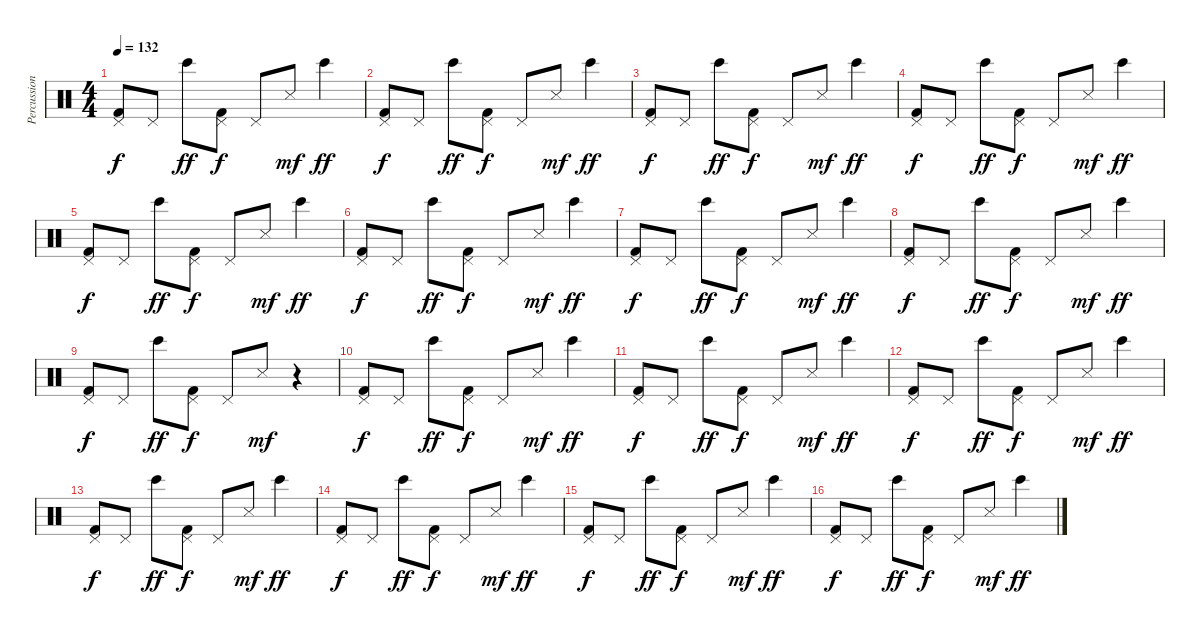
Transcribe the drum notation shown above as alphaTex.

\track ("Percussion" "Percussion") {instrument percussion}
\staff {score}
\articulation defaults
\ts (4 4)
\tempo 132
\clef neutral
\ks c
("Pedal Hi-Hat (hit)" "Kick (hit) 2").8{dy f volume 10} "Pedal Hi-Hat (hit)".8 "Bongo High (hit)".8{dy ff} ("Pedal Hi-Hat (hit)" "Kick (hit) 2").8{dy f} "Pedal Hi-Hat (hit)".8 "Snare (side stick) 3".8{dy mf} "Bongo High (hit)".4{dy ff} |
("Pedal Hi-Hat (hit)" "Kick (hit) 2").8{dy f} "Pedal Hi-Hat (hit)".8 "Bongo High (hit)".8{dy ff} ("Pedal Hi-Hat (hit)" "Kick (hit) 2").8{dy f} "Pedal Hi-Hat (hit)".8 "Snare (side stick) 3".8{dy mf} "Bongo High (hit)".4{dy ff} |
("Pedal Hi-Hat (hit)" "Kick (hit) 2").8{dy f} "Pedal Hi-Hat (hit)".8 "Bongo High (hit)".8{dy ff} ("Pedal Hi-Hat (hit)" "Kick (hit) 2").8{dy f} "Pedal Hi-Hat (hit)".8 "Snare (side stick) 3".8{dy mf} "Bongo High (hit)".4{dy ff} |
("Pedal Hi-Hat (hit)" "Kick (hit) 2").8{dy f} "Pedal Hi-Hat (hit)".8 "Bongo High (hit)".8{dy ff} ("Pedal Hi-Hat (hit)" "Kick (hit) 2").8{dy f} "Pedal Hi-Hat (hit)".8 "Snare (side stick) 3".8{dy mf} "Bongo High (hit)".4{dy ff} |
("Pedal Hi-Hat (hit)" "Kick (hit) 2").8{dy f} "Pedal Hi-Hat (hit)".8 "Bongo High (hit)".8{dy ff} ("Pedal Hi-Hat (hit)" "Kick (hit) 2").8{dy f} "Pedal Hi-Hat (hit)".8 "Snare (side stick) 3".8{dy mf} "Bongo High (hit)".4{dy ff} |
("Pedal Hi-Hat (hit)" "Kick (hit) 2").8{dy f} "Pedal Hi-Hat (hit)".8 "Bongo High (hit)".8{dy ff} ("Pedal Hi-Hat (hit)" "Kick (hit) 2").8{dy f} "Pedal Hi-Hat (hit)".8 "Snare (side stick) 3".8{dy mf} "Bongo High (hit)".4{dy ff} |
("Pedal Hi-Hat (hit)" "Kick (hit) 2").8{dy f} "Pedal Hi-Hat (hit)".8 "Bongo High (hit)".8{dy ff} ("Pedal Hi-Hat (hit)" "Kick (hit) 2").8{dy f} "Pedal Hi-Hat (hit)".8 "Snare (side stick) 3".8{dy mf} "Bongo High (hit)".4{dy ff} |
("Pedal Hi-Hat (hit)" "Kick (hit) 2").8{dy f} "Pedal Hi-Hat (hit)".8 "Bongo High (hit)".8{dy ff} ("Pedal Hi-Hat (hit)" "Kick (hit) 2").8{dy f} "Pedal Hi-Hat (hit)".8 "Snare (side stick) 3".8{dy mf} "Bongo High (hit)".4{dy ff} |
("Pedal Hi-Hat (hit)" "Kick (hit) 2").8{dy f} "Pedal Hi-Hat (hit)".8 "Bongo High (hit)".8{dy ff} ("Pedal Hi-Hat (hit)" "Kick (hit) 2").8{dy f} "Pedal Hi-Hat (hit)".8 "Snare (side stick) 3".8{dy mf} r.4 |
("Pedal Hi-Hat (hit)" "Kick (hit) 2").8{dy f} "Pedal Hi-Hat (hit)".8 "Bongo High (hit)".8{dy ff} ("Pedal Hi-Hat (hit)" "Kick (hit) 2").8{dy f} "Pedal Hi-Hat (hit)".8 "Snare (side stick) 3".8{dy mf} "Bongo High (hit)".4{dy ff} |
("Pedal Hi-Hat (hit)" "Kick (hit) 2").8{dy f} "Pedal Hi-Hat (hit)".8 "Bongo High (hit)".8{dy ff} ("Pedal Hi-Hat (hit)" "Kick (hit) 2").8{dy f} "Pedal Hi-Hat (hit)".8 "Snare (side stick) 3".8{dy mf} "Bongo High (hit)".4{dy ff} |
("Pedal Hi-Hat (hit)" "Kick (hit) 2").8{dy f} "Pedal Hi-Hat (hit)".8 "Bongo High (hit)".8{dy ff} ("Pedal Hi-Hat (hit)" "Kick (hit) 2").8{dy f} "Pedal Hi-Hat (hit)".8 "Snare (side stick) 3".8{dy mf} "Bongo High (hit)".4{dy ff} |
("Pedal Hi-Hat (hit)" "Kick (hit) 2").8{dy f} "Pedal Hi-Hat (hit)".8 "Bongo High (hit)".8{dy ff} ("Pedal Hi-Hat (hit)" "Kick (hit) 2").8{dy f} "Pedal Hi-Hat (hit)".8 "Snare (side stick) 3".8{dy mf} "Bongo High (hit)".4{dy ff} |
("Pedal Hi-Hat (hit)" "Kick (hit) 2").8{dy f} "Pedal Hi-Hat (hit)".8 "Bongo High (hit)".8{dy ff} ("Pedal Hi-Hat (hit)" "Kick (hit) 2").8{dy f} "Pedal Hi-Hat (hit)".8 "Snare (side stick) 3".8{dy mf} "Bongo High (hit)".4{dy ff} |
("Pedal Hi-Hat (hit)" "Kick (hit) 2").8{dy f} "Pedal Hi-Hat (hit)".8 "Bongo High (hit)".8{dy ff} ("Pedal Hi-Hat (hit)" "Kick (hit) 2").8{dy f} "Pedal Hi-Hat (hit)".8 "Snare (side stick) 3".8{dy mf} "Bongo High (hit)".4{dy ff} |
("Pedal Hi-Hat (hit)" "Kick (hit) 2").8{dy f} "Pedal Hi-Hat (hit)".8 "Bongo High (hit)".8{dy ff} ("Pedal Hi-Hat (hit)" "Kick (hit) 2").8{dy f} "Pedal Hi-Hat (hit)".8 "Snare (side stick) 3".8{dy mf} "Bongo High (hit)".4{dy ff}
